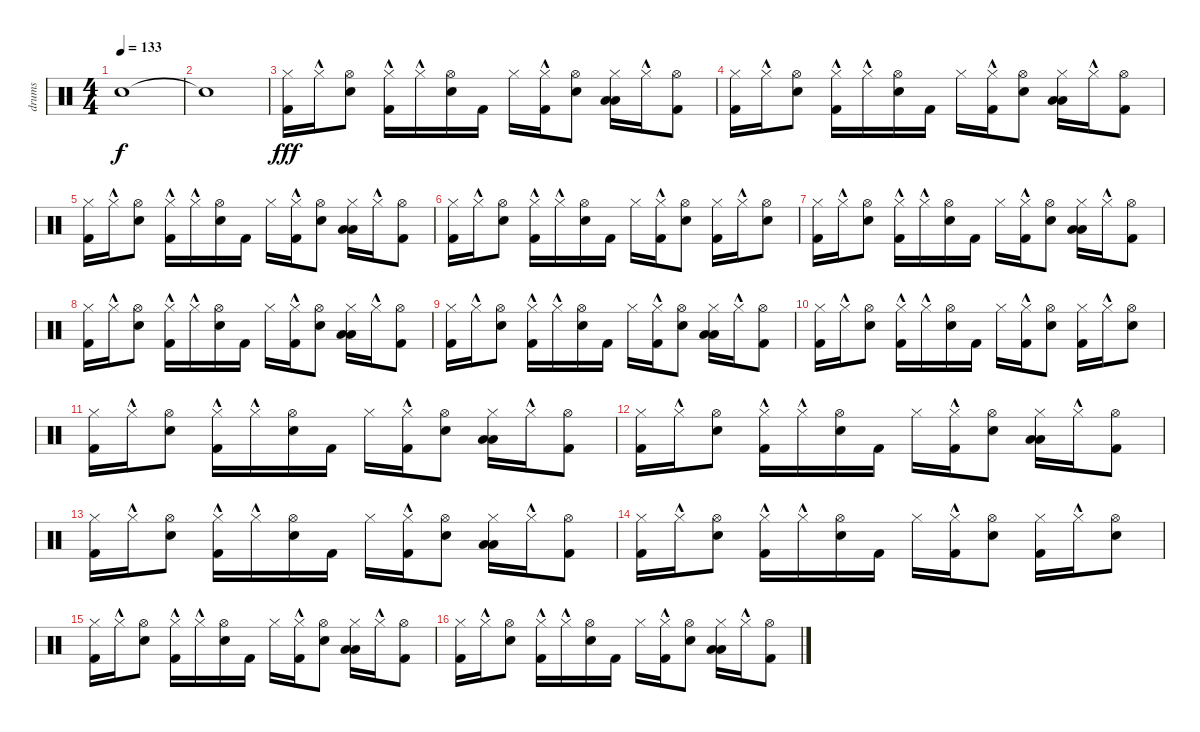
\track ("drums" "drums") {instrument percussion}
\staff {score}
\articulation defaults
\ts (4 4)
\tempo 133
\clef neutral
\ks c "Snare (hit)"{t}.1{dy f}
|
"Snare (hit)"{t}.1 |
("Kick (hit) 2" "Hi-Hat (closed)").16{dy fff} "Hi-Hat (closed)"{hac}.16 ("Hi-Hat (open)" "Electric Snare (hit)").8 ("Kick (hit) 2"{hac} "Hi-Hat (closed)").16 "Hi-Hat (closed)"{hac}.16 ("Hi-Hat (open)" "Electric Snare (hit)").16 "Kick (hit) 2".16 "Hi-Hat (closed)".16 ("Kick (hit) 2" "Hi-Hat (closed)"{hac}).16 ("Hi-Hat (open)" "Electric Snare (hit)").8 ("Low Floor Tom (hit)" "Low Tom (hit)" "Hi-Hat (closed)").16 "Hi-Hat (closed)"{hac}.16 ("Hi-Hat (open)" "Kick (hit) 2").8 |
("Kick (hit) 2" "Hi-Hat (closed)").16 "Hi-Hat (closed)"{hac}.16 ("Hi-Hat (open)" "Electric Snare (hit)").8 ("Kick (hit) 2"{hac} "Hi-Hat (closed)").16 "Hi-Hat (closed)"{hac}.16 ("Hi-Hat (open)" "Electric Snare (hit)").16 "Kick (hit) 2".16 "Hi-Hat (closed)".16 ("Kick (hit) 2" "Hi-Hat (closed)"{hac}).16 ("Hi-Hat (open)" "Electric Snare (hit)").8 ("Low Floor Tom (hit)" "Low Tom (hit)" "Hi-Hat (closed)").16 "Hi-Hat (closed)"{hac}.16 ("Hi-Hat (open)" "Kick (hit) 2").8 |
("Kick (hit) 2" "Hi-Hat (closed)").16 "Hi-Hat (closed)"{hac}.16 ("Hi-Hat (open)" "Electric Snare (hit)").8 ("Kick (hit) 2"{hac} "Hi-Hat (closed)").16 "Hi-Hat (closed)"{hac}.16 ("Hi-Hat (open)" "Electric Snare (hit)").16 "Kick (hit) 2".16 "Hi-Hat (closed)".16 ("Kick (hit) 2" "Hi-Hat (closed)"{hac}).16 ("Hi-Hat (open)" "Electric Snare (hit)").8 ("Low Floor Tom (hit)" "Low Tom (hit)" "Hi-Hat (closed)").16 "Hi-Hat (closed)"{hac}.16 ("Hi-Hat (open)" "Kick (hit) 2").8 |
("Kick (hit) 2" "Hi-Hat (closed)").16 "Hi-Hat (closed)"{hac}.16 ("Hi-Hat (open)" "Electric Snare (hit)").8 ("Kick (hit) 2"{hac} "Hi-Hat (closed)").16 "Hi-Hat (closed)"{hac}.16 ("Hi-Hat (open)" "Electric Snare (hit)").16 "Kick (hit) 2".16 "Hi-Hat (closed)".16 ("Kick (hit) 2" "Hi-Hat (closed)"{hac}).16 ("Hi-Hat (open)" "Electric Snare (hit)").8 ("Hi-Hat (closed)" "Kick (hit) 2").16 "Hi-Hat (closed)"{hac}.16 ("Hi-Hat (open)" "Electric Snare (hit)").8 |
("Kick (hit) 2" "Hi-Hat (closed)").16 "Hi-Hat (closed)"{hac}.16 ("Hi-Hat (open)" "Electric Snare (hit)").8 ("Kick (hit) 2"{hac} "Hi-Hat (closed)").16 "Hi-Hat (closed)"{hac}.16 ("Hi-Hat (open)" "Electric Snare (hit)").16 "Kick (hit) 2".16 "Hi-Hat (closed)".16 ("Kick (hit) 2" "Hi-Hat (closed)"{hac}).16 ("Hi-Hat (open)" "Electric Snare (hit)").8 ("Low Floor Tom (hit)" "Low Tom (hit)" "Hi-Hat (closed)").16 "Hi-Hat (closed)"{hac}.16 ("Hi-Hat (open)" "Kick (hit) 2").8 |
("Kick (hit) 2" "Hi-Hat (closed)").16 "Hi-Hat (closed)"{hac}.16 ("Hi-Hat (open)" "Electric Snare (hit)").8 ("Kick (hit) 2"{hac} "Hi-Hat (closed)").16 "Hi-Hat (closed)"{hac}.16 ("Hi-Hat (open)" "Electric Snare (hit)").16 "Kick (hit) 2".16 "Hi-Hat (closed)".16 ("Kick (hit) 2" "Hi-Hat (closed)"{hac}).16 ("Hi-Hat (open)" "Electric Snare (hit)").8 ("Low Floor Tom (hit)" "Low Tom (hit)" "Hi-Hat (closed)").16 "Hi-Hat (closed)"{hac}.16 ("Hi-Hat (open)" "Kick (hit) 2").8 |
("Kick (hit) 2" "Hi-Hat (closed)").16 "Hi-Hat (closed)"{hac}.16 ("Hi-Hat (open)" "Electric Snare (hit)").8 ("Kick (hit) 2"{hac} "Hi-Hat (closed)").16 "Hi-Hat (closed)"{hac}.16 ("Hi-Hat (open)" "Electric Snare (hit)").16 "Kick (hit) 2".16 "Hi-Hat (closed)".16 ("Kick (hit) 2" "Hi-Hat (closed)"{hac}).16 ("Hi-Hat (open)" "Electric Snare (hit)").8 ("Low Floor Tom (hit)" "Low Tom (hit)" "Hi-Hat (closed)").16 "Hi-Hat (closed)"{hac}.16 ("Hi-Hat (open)" "Kick (hit) 2").8 |
("Kick (hit) 2" "Hi-Hat (closed)").16 "Hi-Hat (closed)"{hac}.16 ("Hi-Hat (open)" "Electric Snare (hit)").8 ("Kick (hit) 2"{hac} "Hi-Hat (closed)").16 "Hi-Hat (closed)"{hac}.16 ("Hi-Hat (open)" "Electric Snare (hit)").16 "Kick (hit) 2".16 "Hi-Hat (closed)".16 ("Kick (hit) 2" "Hi-Hat (closed)"{hac}).16 ("Hi-Hat (open)" "Electric Snare (hit)").8 ("Hi-Hat (closed)" "Kick (hit) 2").16 "Hi-Hat (closed)"{hac}.16 ("Hi-Hat (open)" "Electric Snare (hit)").8 |
("Kick (hit) 2" "Hi-Hat (closed)").16 "Hi-Hat (closed)"{hac}.16 ("Hi-Hat (open)" "Electric Snare (hit)").8 ("Kick (hit) 2"{hac} "Hi-Hat (closed)").16 "Hi-Hat (closed)"{hac}.16 ("Hi-Hat (open)" "Electric Snare (hit)").16 "Kick (hit) 2".16 "Hi-Hat (closed)".16 ("Kick (hit) 2" "Hi-Hat (closed)"{hac}).16 ("Hi-Hat (open)" "Electric Snare (hit)").8 ("Low Floor Tom (hit)" "Low Tom (hit)" "Hi-Hat (closed)").16 "Hi-Hat (closed)"{hac}.16 ("Hi-Hat (open)" "Kick (hit) 2").8 |
("Kick (hit) 2" "Hi-Hat (closed)").16 "Hi-Hat (closed)"{hac}.16 ("Hi-Hat (open)" "Electric Snare (hit)").8 ("Kick (hit) 2"{hac} "Hi-Hat (closed)").16 "Hi-Hat (closed)"{hac}.16 ("Hi-Hat (open)" "Electric Snare (hit)").16 "Kick (hit) 2".16 "Hi-Hat (closed)".16 ("Kick (hit) 2" "Hi-Hat (closed)"{hac}).16 ("Hi-Hat (open)" "Electric Snare (hit)").8 ("Low Floor Tom (hit)" "Low Tom (hit)" "Hi-Hat (closed)").16 "Hi-Hat (closed)"{hac}.16 ("Hi-Hat (open)" "Kick (hit) 2").8 |
("Kick (hit) 2" "Hi-Hat (closed)").16 "Hi-Hat (closed)"{hac}.16 ("Hi-Hat (open)" "Electric Snare (hit)").8 ("Kick (hit) 2"{hac} "Hi-Hat (closed)").16 "Hi-Hat (closed)"{hac}.16 ("Hi-Hat (open)" "Electric Snare (hit)").16 "Kick (hit) 2".16 "Hi-Hat (closed)".16 ("Kick (hit) 2" "Hi-Hat (closed)"{hac}).16 ("Hi-Hat (open)" "Electric Snare (hit)").8 ("Low Floor Tom (hit)" "Low Tom (hit)" "Hi-Hat (closed)").16 "Hi-Hat (closed)"{hac}.16 ("Hi-Hat (open)" "Kick (hit) 2").8 |
("Kick (hit) 2" "Hi-Hat (closed)").16 "Hi-Hat (closed)"{hac}.16 ("Hi-Hat (open)" "Electric Snare (hit)").8 ("Kick (hit) 2"{hac} "Hi-Hat (closed)").16 "Hi-Hat (closed)"{hac}.16 ("Hi-Hat (open)" "Electric Snare (hit)").16 "Kick (hit) 2".16 "Hi-Hat (closed)".16 ("Kick (hit) 2" "Hi-Hat (closed)"{hac}).16 ("Hi-Hat (open)" "Electric Snare (hit)").8 ("Hi-Hat (closed)" "Kick (hit) 2").16 "Hi-Hat (closed)"{hac}.16 ("Hi-Hat (open)" "Electric Snare (hit)").8 |
("Kick (hit) 2" "Hi-Hat (closed)").16 "Hi-Hat (closed)"{hac}.16 ("Hi-Hat (open)" "Electric Snare (hit)").8 ("Kick (hit) 2"{hac} "Hi-Hat (closed)").16 "Hi-Hat (closed)"{hac}.16 ("Hi-Hat (open)" "Electric Snare (hit)").16 "Kick (hit) 2".16 "Hi-Hat (closed)".16 ("Kick (hit) 2" "Hi-Hat (closed)"{hac}).16 ("Hi-Hat (open)" "Electric Snare (hit)").8 ("Low Floor Tom (hit)" "Low Tom (hit)" "Hi-Hat (closed)").16 "Hi-Hat (closed)"{hac}.16 ("Hi-Hat (open)" "Kick (hit) 2").8 |
("Kick (hit) 2" "Hi-Hat (closed)").16 "Hi-Hat (closed)"{hac}.16 ("Hi-Hat (open)" "Electric Snare (hit)").8 ("Kick (hit) 2"{hac} "Hi-Hat (closed)").16 "Hi-Hat (closed)"{hac}.16 ("Hi-Hat (open)" "Electric Snare (hit)").16 "Kick (hit) 2".16 "Hi-Hat (closed)".16 ("Kick (hit) 2" "Hi-Hat (closed)"{hac}).16 ("Hi-Hat (open)" "Electric Snare (hit)").8 ("Low Floor Tom (hit)" "Low Tom (hit)" "Hi-Hat (closed)").16 "Hi-Hat (closed)"{hac}.16 ("Hi-Hat (open)" "Kick (hit) 2").8
